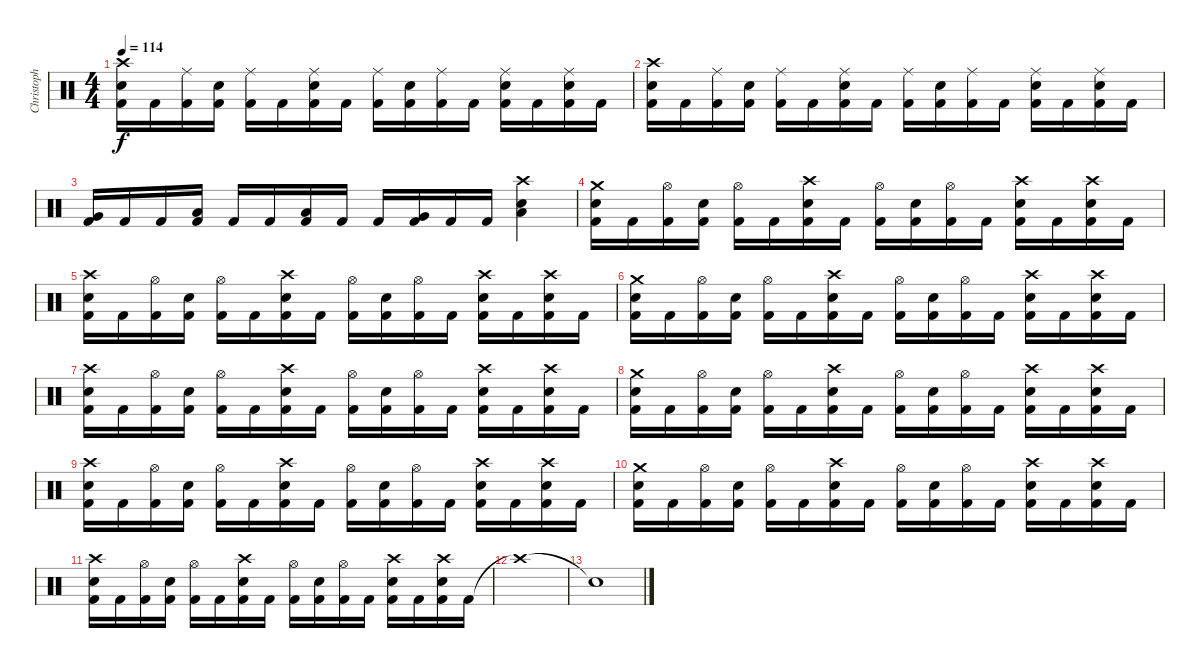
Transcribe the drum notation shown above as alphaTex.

\track ("Christoph Schneider [Drums]" "Christoph ") {instrument percussion}
\staff {score}
\articulation defaults
\ts (4 4)
\tempo 114
\clef neutral
\ks c
("Crash high (hit)" "Electric Snare (hit)" "Kick (hit) 2").16{dy f} "Kick (hit) 2".16 ("Ride (middle)" "Kick (hit) 2").16 ("Electric Snare (hit)" "Kick (hit) 2").16 ("Ride (middle)" "Kick (hit) 2").16 "Kick (hit) 2".16 ("Ride (middle)" "Electric Snare (hit)" "Kick (hit) 2").16 "Kick (hit) 2".16 ("Ride (middle)" "Kick (hit) 2").16 ("Electric Snare (hit)" "Kick (hit) 2").16 ("Ride (middle)" "Kick (hit) 2").16 "Kick (hit) 2".16 ("Ride (middle)" "Electric Snare (hit)" "Kick (hit) 2").16 "Kick (hit) 2".16 ("Ride (middle)" "Electric Snare (hit)" "Kick (hit) 2").16 "Kick (hit) 2".16 |
("Crash high (hit)" "Electric Snare (hit)" "Kick (hit) 2").16 "Kick (hit) 2".16 ("Ride (middle)" "Kick (hit) 2").16 ("Electric Snare (hit)" "Kick (hit) 2").16 ("Ride (middle)" "Kick (hit) 2").16 "Kick (hit) 2".16 ("Ride (middle)" "Electric Snare (hit)" "Kick (hit) 2").16 "Kick (hit) 2".16 ("Ride (middle)" "Kick (hit) 2").16 ("Electric Snare (hit)" "Kick (hit) 2").16 ("Ride (middle)" "Kick (hit) 2").16 "Kick (hit) 2".16 ("Ride (middle)" "Electric Snare (hit)" "Kick (hit) 2").16 "Kick (hit) 2".16 ("Ride (middle)" "Electric Snare (hit)" "Kick (hit) 2").16 "Kick (hit) 2".16 |
("Very Low Tom (hit)" "Kick (hit) 2").16 "Kick (hit) 2".16 "Kick (hit) 2".16 ("Low Floor Tom (hit)" "Kick (hit) 2").16 "Kick (hit) 2".16 "Kick (hit) 2".16 ("Low Floor Tom (hit)" "Kick (hit) 2").16 "Kick (hit) 2".16 "Kick (hit) 2".16 ("Very Low Tom (hit)" "Kick (hit) 2").16 "Kick (hit) 2".16 "Kick (hit) 2".16 ("Crash high (hit)" "Low Floor Tom (hit)" "Electric Snare (hit)").4 |
("Crash medium (hit)" "Electric Snare (hit)" "Kick (hit) 2").16 "Kick (hit) 2".16 ("Hi-Hat (open)" "Kick (hit) 2").16 ("Electric Snare (hit)" "Kick (hit) 2").16 ("Hi-Hat (open)" "Kick (hit) 2").16 "Kick (hit) 2".16 ("Crash high (hit)" "Electric Snare (hit)" "Kick (hit) 2").16 "Kick (hit) 2".16 ("Hi-Hat (open)" "Kick (hit) 2").16 ("Electric Snare (hit)" "Kick (hit) 2").16 ("Hi-Hat (open)" "Kick (hit) 2").16 "Kick (hit) 2".16 ("Crash high (hit)" "Electric Snare (hit)" "Kick (hit) 2").16 "Kick (hit) 2".16 ("Crash high (hit)" "Electric Snare (hit)" "Kick (hit) 2").16 "Kick (hit) 2".16 |
("Crash high (hit)" "Electric Snare (hit)" "Kick (hit) 2").16 "Kick (hit) 2".16 ("Hi-Hat (open)" "Kick (hit) 2").16 ("Electric Snare (hit)" "Kick (hit) 2").16 ("Hi-Hat (open)" "Kick (hit) 2").16 "Kick (hit) 2".16 ("Crash high (hit)" "Electric Snare (hit)" "Kick (hit) 2").16 "Kick (hit) 2".16 ("Hi-Hat (open)" "Kick (hit) 2").16 ("Electric Snare (hit)" "Kick (hit) 2").16 ("Hi-Hat (open)" "Kick (hit) 2").16 "Kick (hit) 2".16 ("Crash high (hit)" "Electric Snare (hit)" "Kick (hit) 2").16 "Kick (hit) 2".16 ("Crash high (hit)" "Electric Snare (hit)" "Kick (hit) 2").16 "Kick (hit) 2".16 |
("Crash medium (hit)" "Electric Snare (hit)" "Kick (hit) 2").16 "Kick (hit) 2".16 ("Hi-Hat (open)" "Kick (hit) 2").16 ("Electric Snare (hit)" "Kick (hit) 2").16 ("Hi-Hat (open)" "Kick (hit) 2").16 "Kick (hit) 2".16 ("Crash high (hit)" "Electric Snare (hit)" "Kick (hit) 2").16 "Kick (hit) 2".16 ("Hi-Hat (open)" "Kick (hit) 2").16 ("Electric Snare (hit)" "Kick (hit) 2").16 ("Hi-Hat (open)" "Kick (hit) 2").16 "Kick (hit) 2".16 ("Crash high (hit)" "Electric Snare (hit)" "Kick (hit) 2").16 "Kick (hit) 2".16 ("Crash high (hit)" "Electric Snare (hit)" "Kick (hit) 2").16 "Kick (hit) 2".16 |
("Crash high (hit)" "Electric Snare (hit)" "Kick (hit) 2").16 "Kick (hit) 2".16 ("Hi-Hat (open)" "Kick (hit) 2").16 ("Electric Snare (hit)" "Kick (hit) 2").16 ("Hi-Hat (open)" "Kick (hit) 2").16 "Kick (hit) 2".16 ("Crash high (hit)" "Electric Snare (hit)" "Kick (hit) 2").16 "Kick (hit) 2".16 ("Hi-Hat (open)" "Kick (hit) 2").16 ("Electric Snare (hit)" "Kick (hit) 2").16 ("Hi-Hat (open)" "Kick (hit) 2").16 "Kick (hit) 2".16 ("Crash high (hit)" "Electric Snare (hit)" "Kick (hit) 2").16 "Kick (hit) 2".16 ("Crash high (hit)" "Electric Snare (hit)" "Kick (hit) 2").16 "Kick (hit) 2".16 |
("Crash medium (hit)" "Electric Snare (hit)" "Kick (hit) 2").16 "Kick (hit) 2".16 ("Hi-Hat (open)" "Kick (hit) 2").16 ("Electric Snare (hit)" "Kick (hit) 2").16 ("Hi-Hat (open)" "Kick (hit) 2").16 "Kick (hit) 2".16 ("Crash high (hit)" "Electric Snare (hit)" "Kick (hit) 2").16 "Kick (hit) 2".16 ("Hi-Hat (open)" "Kick (hit) 2").16 ("Electric Snare (hit)" "Kick (hit) 2").16 ("Hi-Hat (open)" "Kick (hit) 2").16 "Kick (hit) 2".16 ("Crash high (hit)" "Electric Snare (hit)" "Kick (hit) 2").16 "Kick (hit) 2".16 ("Crash high (hit)" "Electric Snare (hit)" "Kick (hit) 2").16 "Kick (hit) 2".16 |
("Crash high (hit)" "Electric Snare (hit)" "Kick (hit) 2").16 "Kick (hit) 2".16 ("Hi-Hat (open)" "Kick (hit) 2").16 ("Electric Snare (hit)" "Kick (hit) 2").16 ("Hi-Hat (open)" "Kick (hit) 2").16 "Kick (hit) 2".16 ("Crash high (hit)" "Electric Snare (hit)" "Kick (hit) 2").16 "Kick (hit) 2".16 ("Hi-Hat (open)" "Kick (hit) 2").16 ("Electric Snare (hit)" "Kick (hit) 2").16 ("Hi-Hat (open)" "Kick (hit) 2").16 "Kick (hit) 2".16 ("Crash high (hit)" "Electric Snare (hit)" "Kick (hit) 2").16 "Kick (hit) 2".16 ("Crash high (hit)" "Electric Snare (hit)" "Kick (hit) 2").16 "Kick (hit) 2".16 |
("Crash medium (hit)" "Electric Snare (hit)" "Kick (hit) 2").16 "Kick (hit) 2".16 ("Hi-Hat (open)" "Kick (hit) 2").16 ("Electric Snare (hit)" "Kick (hit) 2").16 ("Hi-Hat (open)" "Kick (hit) 2").16 "Kick (hit) 2".16 ("Crash high (hit)" "Electric Snare (hit)" "Kick (hit) 2").16 "Kick (hit) 2".16 ("Hi-Hat (open)" "Kick (hit) 2").16 ("Electric Snare (hit)" "Kick (hit) 2").16 ("Hi-Hat (open)" "Kick (hit) 2").16 "Kick (hit) 2".16 ("Crash high (hit)" "Electric Snare (hit)" "Kick (hit) 2").16 "Kick (hit) 2".16 ("Crash high (hit)" "Electric Snare (hit)" "Kick (hit) 2").16 "Kick (hit) 2".16 |
("Crash high (hit)" "Electric Snare (hit)" "Kick (hit) 2").16 "Kick (hit) 2".16 ("Hi-Hat (open)" "Kick (hit) 2").16 ("Electric Snare (hit)" "Kick (hit) 2").16 ("Hi-Hat (open)" "Kick (hit) 2").16 "Kick (hit) 2".16 ("Crash high (hit)" "Electric Snare (hit)" "Kick (hit) 2").16 "Kick (hit) 2".16 ("Hi-Hat (open)" "Kick (hit) 2").16 ("Electric Snare (hit)" "Kick (hit) 2").16 ("Hi-Hat (open)" "Kick (hit) 2").16 "Kick (hit) 2".16 ("Crash high (hit)" "Electric Snare (hit)" "Kick (hit) 2").16 "Kick (hit) 2".16 ("Crash high (hit)" "Electric Snare (hit)" "Kick (hit) 2").16 "Kick (hit) 2".16 |
"Crash high (hit)"{t}.1 |
"Snare (hit)"{t}.1
